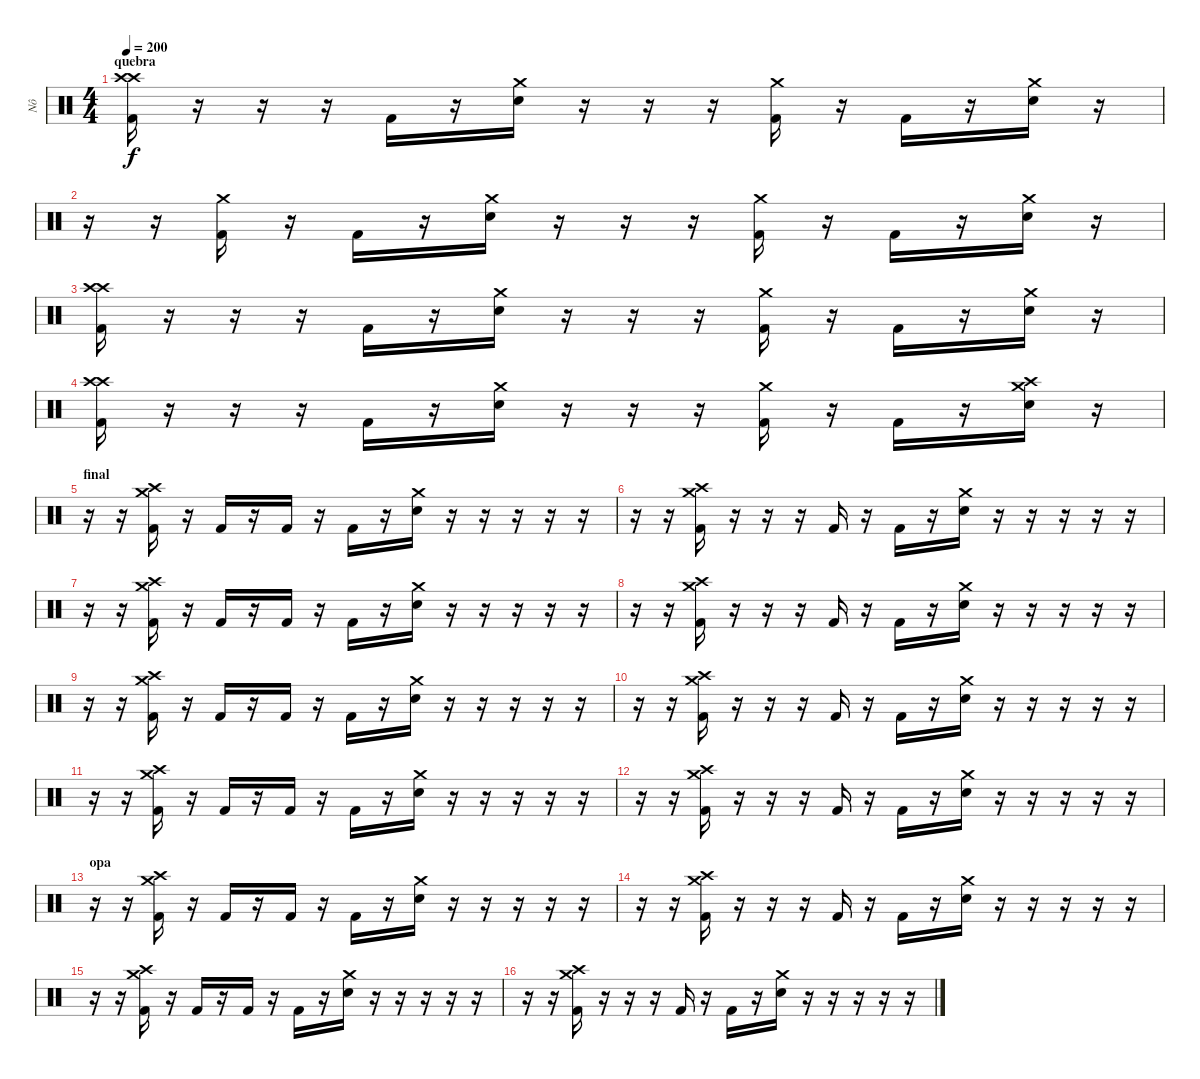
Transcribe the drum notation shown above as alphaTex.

\track ("Nô" "Nô") {instrument percussion}
\staff {score}
\articulation defaults
\ts (4 4)
\section ("" "quebra")
\tempo 200
\clef neutral
\ks c
("Crash high (hit)" "Crash high (hit)" "Kick (hit) 2").16{dy f} r.16 r.16 r.16 "Kick (hit) 2".16 r.16 ("Crash medium (hit)" "Electric Snare (hit)").16 r.16 r.16 r.16 ("Crash medium (hit)" "Kick (hit) 2").16 r.16 "Kick (hit) 2".16 r.16 ("Crash medium (hit)" "Electric Snare (hit)").16 r.16 |
r.16 r.16 ("Crash medium (hit)" "Kick (hit) 2").16 r.16 "Kick (hit) 2".16 r.16 ("Crash medium (hit)" "Electric Snare (hit)").16 r.16 r.16 r.16 ("Crash medium (hit)" "Kick (hit) 2").16 r.16 "Kick (hit) 2".16 r.16 ("Crash medium (hit)" "Electric Snare (hit)").16 r.16 |
("Crash high (hit)" "Crash high (hit)" "Kick (hit) 2").16 r.16 r.16 r.16 "Kick (hit) 2".16 r.16 ("Crash medium (hit)" "Electric Snare (hit)").16 r.16 r.16 r.16 ("Crash medium (hit)" "Kick (hit) 2").16 r.16 "Kick (hit) 2".16 r.16 ("Crash medium (hit)" "Electric Snare (hit)").16 r.16 |
("Crash high (hit)" "Crash high (hit)" "Kick (hit) 2").16 r.16 r.16 r.16 "Kick (hit) 2".16 r.16 ("Crash medium (hit)" "Electric Snare (hit)").16 r.16 r.16 r.16 ("Crash medium (hit)" "Kick (hit) 2").16 r.16 "Kick (hit) 2".16 r.16 ("Crash medium (hit)" "Crash high (hit)" "Electric Snare (hit)").16 r.16 |
\section ("" "final")
r.16 r.16 ("Crash medium (hit)" "Crash high (hit)" "Kick (hit) 2").16 r.16 "Kick (hit) 2".16 r.16 "Kick (hit) 2".16 r.16 "Kick (hit) 2".16 r.16 ("Crash medium (hit)" "Electric Snare (hit)").16 r.16 r.16 r.16 r.16 r.16 |
r.16 r.16 ("Crash medium (hit)" "Crash high (hit)" "Kick (hit) 2").16 r.16 r.16 r.16 "Kick (hit) 2".16 r.16 "Kick (hit) 2".16 r.16 ("Crash medium (hit)" "Electric Snare (hit)").16 r.16 r.16 r.16 r.16 r.16 |
r.16 r.16 ("Crash medium (hit)" "Crash high (hit)" "Kick (hit) 2").16 r.16 "Kick (hit) 2".16 r.16 "Kick (hit) 2".16 r.16 "Kick (hit) 2".16 r.16 ("Crash medium (hit)" "Electric Snare (hit)").16 r.16 r.16 r.16 r.16 r.16 |
r.16 r.16 ("Crash medium (hit)" "Crash high (hit)" "Kick (hit) 2").16 r.16 r.16 r.16 "Kick (hit) 2".16 r.16 "Kick (hit) 2".16 r.16 ("Crash medium (hit)" "Electric Snare (hit)").16 r.16 r.16 r.16 r.16 r.16 |
r.16 r.16 ("Crash medium (hit)" "Crash high (hit)" "Kick (hit) 2").16 r.16 "Kick (hit) 2".16 r.16 "Kick (hit) 2".16 r.16 "Kick (hit) 2".16 r.16 ("Crash medium (hit)" "Electric Snare (hit)").16 r.16 r.16 r.16 r.16 r.16 |
r.16 r.16 ("Crash medium (hit)" "Crash high (hit)" "Kick (hit) 2").16 r.16 r.16 r.16 "Kick (hit) 2".16 r.16 "Kick (hit) 2".16 r.16 ("Crash medium (hit)" "Electric Snare (hit)").16 r.16 r.16 r.16 r.16 r.16 |
r.16 r.16 ("Crash medium (hit)" "Crash high (hit)" "Kick (hit) 2").16 r.16 "Kick (hit) 2".16 r.16 "Kick (hit) 2".16 r.16 "Kick (hit) 2".16 r.16 ("Crash medium (hit)" "Electric Snare (hit)").16 r.16 r.16 r.16 r.16 r.16 |
r.16 r.16 ("Crash medium (hit)" "Crash high (hit)" "Kick (hit) 2").16 r.16 r.16 r.16 "Kick (hit) 2".16 r.16 "Kick (hit) 2".16 r.16 ("Crash medium (hit)" "Electric Snare (hit)").16 r.16 r.16 r.16 r.16 r.16 |
\section ("" "opa")
r.16 r.16 ("Crash medium (hit)" "Crash high (hit)" "Kick (hit) 2").16 r.16 "Kick (hit) 2".16 r.16 "Kick (hit) 2".16 r.16 "Kick (hit) 2".16 r.16 ("Crash medium (hit)" "Electric Snare (hit)").16 r.16 r.16 r.16 r.16 r.16 |
r.16 r.16 ("Crash medium (hit)" "Crash high (hit)" "Kick (hit) 2").16 r.16 r.16 r.16 "Kick (hit) 2".16 r.16 "Kick (hit) 2".16 r.16 ("Crash medium (hit)" "Electric Snare (hit)").16 r.16 r.16 r.16 r.16 r.16 |
r.16 r.16 ("Crash medium (hit)" "Crash high (hit)" "Kick (hit) 2").16 r.16 "Kick (hit) 2".16 r.16 "Kick (hit) 2".16 r.16 "Kick (hit) 2".16 r.16 ("Crash medium (hit)" "Electric Snare (hit)").16 r.16 r.16 r.16 r.16 r.16 |
r.16 r.16 ("Crash medium (hit)" "Crash high (hit)" "Kick (hit) 2").16 r.16 r.16 r.16 "Kick (hit) 2".16 r.16 "Kick (hit) 2".16 r.16 ("Crash medium (hit)" "Electric Snare (hit)").16 r.16 r.16 r.16 r.16 r.16
